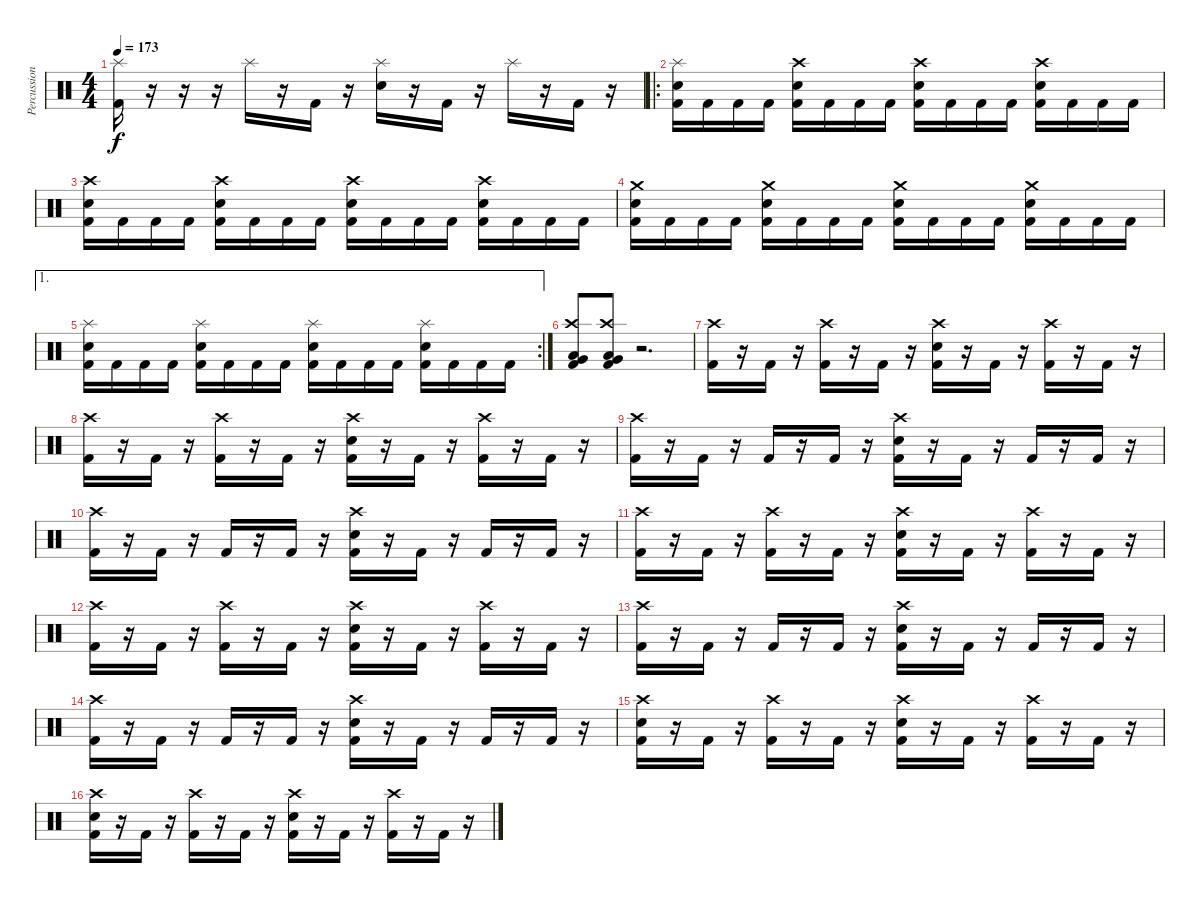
\track ("Percussion" "Percussion") {instrument percussion}
\staff {score}
\articulation defaults
\ts (4 4)
\tempo 173
\clef neutral
\ks c
("Splash (hit)" "Kick (hit) 2").16{dy f} r.16 r.16 r.16 "Splash (hit)".16 r.16 "Kick (hit) 2".16 r.16 ("Splash (hit)" "Electric Snare (hit)").16 r.16 "Kick (hit) 2".16 r.16 "Splash (hit)".16 r.16 "Kick (hit) 2".16 r.16 |
\ro
("Splash (hit)" "Electric Snare (hit)" "Kick (hit) 2").16 "Kick (hit) 2".16 "Kick (hit) 2".16 "Kick (hit) 2".16 ("Crash high (hit)" "Electric Snare (hit)" "Kick (hit) 2").16 "Kick (hit) 2".16 "Kick (hit) 2".16 "Kick (hit) 2".16 ("Crash high (hit)" "Electric Snare (hit)" "Kick (hit) 2").16 "Kick (hit) 2".16 "Kick (hit) 2".16 "Kick (hit) 2".16 ("Crash high (hit)" "Electric Snare (hit)" "Kick (hit) 2").16 "Kick (hit) 2".16 "Kick (hit) 2".16 "Kick (hit) 2".16 |
("Crash high (hit)" "Electric Snare (hit)" "Kick (hit) 2").16 "Kick (hit) 2".16 "Kick (hit) 2".16 "Kick (hit) 2".16 ("Crash high (hit)" "Electric Snare (hit)" "Kick (hit) 2").16 "Kick (hit) 2".16 "Kick (hit) 2".16 "Kick (hit) 2".16 ("Crash high (hit)" "Electric Snare (hit)" "Kick (hit) 2").16 "Kick (hit) 2".16 "Kick (hit) 2".16 "Kick (hit) 2".16 ("Crash high (hit)" "Electric Snare (hit)" "Kick (hit) 2").16 "Kick (hit) 2".16 "Kick (hit) 2".16 "Kick (hit) 2".16 |
("Crash medium (hit)" "Electric Snare (hit)" "Kick (hit) 2").16 "Kick (hit) 2".16 "Kick (hit) 2".16 "Kick (hit) 2".16 ("Crash medium (hit)" "Electric Snare (hit)" "Kick (hit) 2").16 "Kick (hit) 2".16 "Kick (hit) 2".16 "Kick (hit) 2".16 ("Crash medium (hit)" "Electric Snare (hit)" "Kick (hit) 2").16 "Kick (hit) 2".16 "Kick (hit) 2".16 "Kick (hit) 2".16 ("Crash medium (hit)" "Electric Snare (hit)" "Kick (hit) 2").16 "Kick (hit) 2".16 "Kick (hit) 2".16 "Kick (hit) 2".16 |
\ae 1
\rc 2
("Splash (hit)" "Electric Snare (hit)" "Kick (hit) 2").16 "Kick (hit) 2".16 "Kick (hit) 2".16 "Kick (hit) 2".16 ("Splash (hit)" "Electric Snare (hit)" "Kick (hit) 2").16 "Kick (hit) 2".16 "Kick (hit) 2".16 "Kick (hit) 2".16 ("Splash (hit)" "Electric Snare (hit)" "Kick (hit) 2").16 "Kick (hit) 2".16 "Kick (hit) 2".16 "Kick (hit) 2".16 ("Splash (hit)" "Electric Snare (hit)" "Kick (hit) 2").16 "Kick (hit) 2".16 "Kick (hit) 2".16 "Kick (hit) 2".16 |
("Crash high (hit)" "Very Low Tom (hit)" "Low Floor Tom (hit)" "Kick (hit) 2").8 ("Crash high (hit)" "Very Low Tom (hit)" "Low Floor Tom (hit)" "Kick (hit) 2").8 r.2{d} |
("Crash high (hit)" "Kick (hit) 2").16 r.16 "Kick (hit) 2".16 r.16 ("Crash high (hit)" "Kick (hit) 2").16 r.16 "Kick (hit) 2".16 r.16 ("Crash high (hit)" "Electric Snare (hit)" "Kick (hit) 2").16 r.16 "Kick (hit) 2".16 r.16 ("Crash high (hit)" "Kick (hit) 2").16 r.16 "Kick (hit) 2".16 r.16 |
("Crash high (hit)" "Kick (hit) 2").16 r.16 "Kick (hit) 2".16 r.16 ("Crash high (hit)" "Kick (hit) 2").16 r.16 "Kick (hit) 2".16 r.16 ("Crash high (hit)" "Electric Snare (hit)" "Kick (hit) 2").16 r.16 "Kick (hit) 2".16 r.16 ("Crash high (hit)" "Kick (hit) 2").16 r.16 "Kick (hit) 2".16 r.16 |
("Crash high (hit)" "Kick (hit) 2").16 r.16 "Kick (hit) 2".16 r.16 "Kick (hit) 2".16 r.16 "Kick (hit) 2".16 r.16 ("Crash high (hit)" "Electric Snare (hit)" "Kick (hit) 2").16 r.16 "Kick (hit) 2".16 r.16 "Kick (hit) 2".16 r.16 "Kick (hit) 2".16 r.16 |
("Crash high (hit)" "Kick (hit) 2").16 r.16 "Kick (hit) 2".16 r.16 "Kick (hit) 2".16 r.16 "Kick (hit) 2".16 r.16 ("Crash high (hit)" "Electric Snare (hit)" "Kick (hit) 2").16 r.16 "Kick (hit) 2".16 r.16 "Kick (hit) 2".16 r.16 "Kick (hit) 2".16 r.16 |
("Crash high (hit)" "Kick (hit) 2").16 r.16 "Kick (hit) 2".16 r.16 ("Crash high (hit)" "Kick (hit) 2").16 r.16 "Kick (hit) 2".16 r.16 ("Crash high (hit)" "Electric Snare (hit)" "Kick (hit) 2").16 r.16 "Kick (hit) 2".16 r.16 ("Crash high (hit)" "Kick (hit) 2").16 r.16 "Kick (hit) 2".16 r.16 |
("Crash high (hit)" "Kick (hit) 2").16 r.16 "Kick (hit) 2".16 r.16 ("Crash high (hit)" "Kick (hit) 2").16 r.16 "Kick (hit) 2".16 r.16 ("Crash high (hit)" "Electric Snare (hit)" "Kick (hit) 2").16 r.16 "Kick (hit) 2".16 r.16 ("Crash high (hit)" "Kick (hit) 2").16 r.16 "Kick (hit) 2".16 r.16 |
("Crash high (hit)" "Kick (hit) 2").16 r.16 "Kick (hit) 2".16 r.16 "Kick (hit) 2".16 r.16 "Kick (hit) 2".16 r.16 ("Crash high (hit)" "Electric Snare (hit)" "Kick (hit) 2").16 r.16 "Kick (hit) 2".16 r.16 "Kick (hit) 2".16 r.16 "Kick (hit) 2".16 r.16 |
("Crash high (hit)" "Kick (hit) 2").16 r.16 "Kick (hit) 2".16 r.16 "Kick (hit) 2".16 r.16 "Kick (hit) 2".16 r.16 ("Crash high (hit)" "Electric Snare (hit)" "Kick (hit) 2").16 r.16 "Kick (hit) 2".16 r.16 "Kick (hit) 2".16 r.16 "Kick (hit) 2".16 r.16 |
("Crash high (hit)" "Electric Snare (hit)" "Kick (hit) 2").16 r.16 "Kick (hit) 2".16 r.16 ("Crash high (hit)" "Kick (hit) 2").16 r.16 "Kick (hit) 2".16 r.16 ("Crash high (hit)" "Electric Snare (hit)" "Kick (hit) 2").16 r.16 "Kick (hit) 2".16 r.16 ("Crash high (hit)" "Kick (hit) 2").16 r.16 "Kick (hit) 2".16 r.16 |
("Crash high (hit)" "Electric Snare (hit)" "Kick (hit) 2").16 r.16 "Kick (hit) 2".16 r.16 ("Crash high (hit)" "Kick (hit) 2").16 r.16 "Kick (hit) 2".16 r.16 ("Crash high (hit)" "Electric Snare (hit)" "Kick (hit) 2").16 r.16 "Kick (hit) 2".16 r.16 ("Crash high (hit)" "Kick (hit) 2").16 r.16 "Kick (hit) 2".16 r.16
